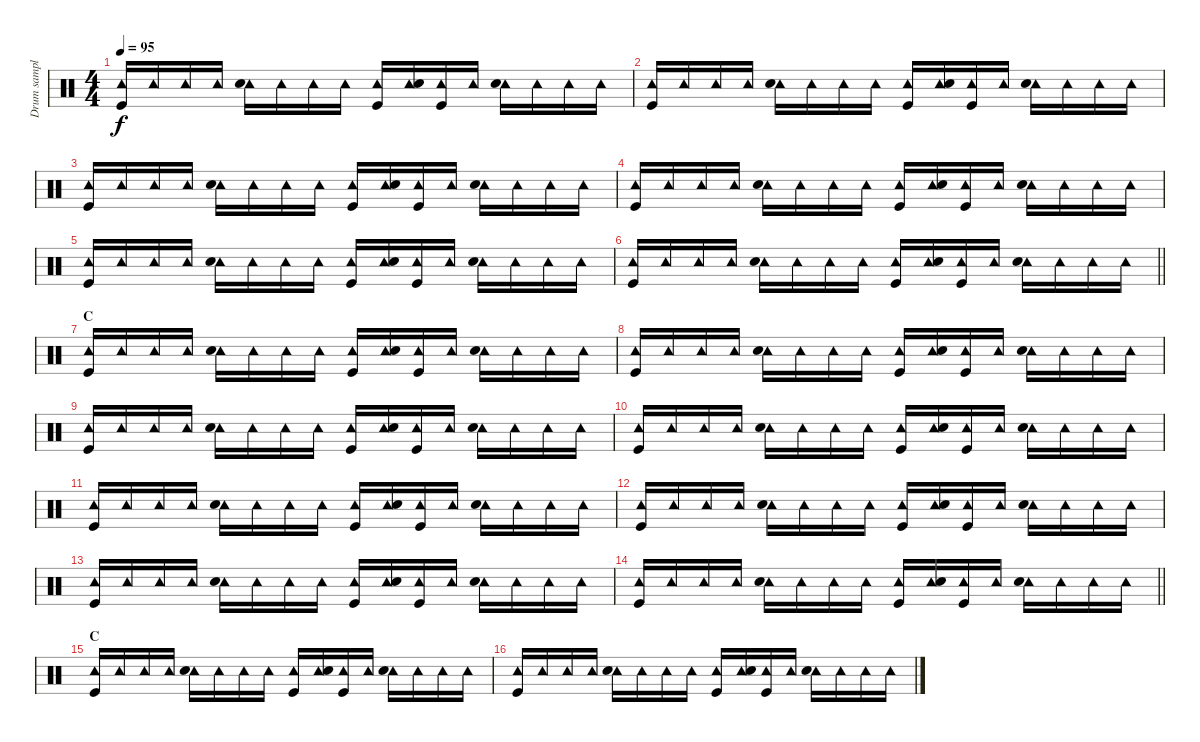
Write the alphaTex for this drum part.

\track ("Drum sample" "Drum sampl") {instrument percussion}
\staff {score}
\articulation defaults
\ts (4 4)
\tempo 95
\clef neutral
\ks c
("Tambourine (hit)" "Kick (hit)").16{dy f} "Tambourine (hit)".16 "Tambourine (hit)".16 "Tambourine (hit)".16 ("Tambourine (hit)" "Electric Snare (hit)").16 "Tambourine (hit)".16 "Tambourine (hit)".16 "Tambourine (hit)".16 ("Tambourine (hit)" "Kick (hit)").16 ("Tambourine (hit)" "Electric Snare (hit)").16 ("Tambourine (hit)" "Kick (hit)").16 "Tambourine (hit)".16 ("Tambourine (hit)" "Electric Snare (hit)").16 "Tambourine (hit)".16 "Tambourine (hit)".16 "Tambourine (hit)".16 |
("Tambourine (hit)" "Kick (hit)").16 "Tambourine (hit)".16 "Tambourine (hit)".16 "Tambourine (hit)".16 ("Tambourine (hit)" "Electric Snare (hit)").16 "Tambourine (hit)".16 "Tambourine (hit)".16 "Tambourine (hit)".16 ("Tambourine (hit)" "Kick (hit)").16 ("Tambourine (hit)" "Electric Snare (hit)").16 ("Tambourine (hit)" "Kick (hit)").16 "Tambourine (hit)".16 ("Tambourine (hit)" "Electric Snare (hit)").16 "Tambourine (hit)".16 "Tambourine (hit)".16 "Tambourine (hit)".16 |
("Tambourine (hit)" "Kick (hit)").16 "Tambourine (hit)".16 "Tambourine (hit)".16 "Tambourine (hit)".16 ("Tambourine (hit)" "Electric Snare (hit)").16 "Tambourine (hit)".16 "Tambourine (hit)".16 "Tambourine (hit)".16 ("Tambourine (hit)" "Kick (hit)").16 ("Tambourine (hit)" "Electric Snare (hit)").16 ("Tambourine (hit)" "Kick (hit)").16 "Tambourine (hit)".16 ("Tambourine (hit)" "Electric Snare (hit)").16 "Tambourine (hit)".16 "Tambourine (hit)".16 "Tambourine (hit)".16 |
("Tambourine (hit)" "Kick (hit)").16 "Tambourine (hit)".16 "Tambourine (hit)".16 "Tambourine (hit)".16 ("Tambourine (hit)" "Electric Snare (hit)").16 "Tambourine (hit)".16 "Tambourine (hit)".16 "Tambourine (hit)".16 ("Tambourine (hit)" "Kick (hit)").16 ("Tambourine (hit)" "Electric Snare (hit)").16 ("Tambourine (hit)" "Kick (hit)").16 "Tambourine (hit)".16 ("Tambourine (hit)" "Electric Snare (hit)").16 "Tambourine (hit)".16 "Tambourine (hit)".16 "Tambourine (hit)".16 |
("Tambourine (hit)" "Kick (hit)").16 "Tambourine (hit)".16 "Tambourine (hit)".16 "Tambourine (hit)".16 ("Tambourine (hit)" "Electric Snare (hit)").16 "Tambourine (hit)".16 "Tambourine (hit)".16 "Tambourine (hit)".16 ("Tambourine (hit)" "Kick (hit)").16 ("Tambourine (hit)" "Electric Snare (hit)").16 ("Tambourine (hit)" "Kick (hit)").16 "Tambourine (hit)".16 ("Tambourine (hit)" "Electric Snare (hit)").16 "Tambourine (hit)".16 "Tambourine (hit)".16 "Tambourine (hit)".16 |
\barLineRight lightlight
("Tambourine (hit)" "Kick (hit)").16 "Tambourine (hit)".16 "Tambourine (hit)".16 "Tambourine (hit)".16 ("Tambourine (hit)" "Electric Snare (hit)").16 "Tambourine (hit)".16 "Tambourine (hit)".16 "Tambourine (hit)".16 ("Tambourine (hit)" "Kick (hit)").16 ("Tambourine (hit)" "Electric Snare (hit)").16 ("Tambourine (hit)" "Kick (hit)").16 "Tambourine (hit)".16 ("Tambourine (hit)" "Electric Snare (hit)").16 "Tambourine (hit)".16 "Tambourine (hit)".16 "Tambourine (hit)".16 |
\section ("" "C")
("Tambourine (hit)" "Kick (hit)").16 "Tambourine (hit)".16 "Tambourine (hit)".16 "Tambourine (hit)".16 ("Tambourine (hit)" "Electric Snare (hit)").16 "Tambourine (hit)".16 "Tambourine (hit)".16 "Tambourine (hit)".16 ("Tambourine (hit)" "Kick (hit)").16 ("Tambourine (hit)" "Electric Snare (hit)").16 ("Tambourine (hit)" "Kick (hit)").16 "Tambourine (hit)".16 ("Tambourine (hit)" "Electric Snare (hit)").16 "Tambourine (hit)".16 "Tambourine (hit)".16 "Tambourine (hit)".16 |
("Tambourine (hit)" "Kick (hit)").16 "Tambourine (hit)".16 "Tambourine (hit)".16 "Tambourine (hit)".16 ("Tambourine (hit)" "Electric Snare (hit)").16 "Tambourine (hit)".16 "Tambourine (hit)".16 "Tambourine (hit)".16 ("Tambourine (hit)" "Kick (hit)").16 ("Tambourine (hit)" "Electric Snare (hit)").16 ("Tambourine (hit)" "Kick (hit)").16 "Tambourine (hit)".16 ("Tambourine (hit)" "Electric Snare (hit)").16 "Tambourine (hit)".16 "Tambourine (hit)".16 "Tambourine (hit)".16 |
("Tambourine (hit)" "Kick (hit)").16 "Tambourine (hit)".16 "Tambourine (hit)".16 "Tambourine (hit)".16 ("Tambourine (hit)" "Electric Snare (hit)").16 "Tambourine (hit)".16 "Tambourine (hit)".16 "Tambourine (hit)".16 ("Tambourine (hit)" "Kick (hit)").16 ("Tambourine (hit)" "Electric Snare (hit)").16 ("Tambourine (hit)" "Kick (hit)").16 "Tambourine (hit)".16 ("Tambourine (hit)" "Electric Snare (hit)").16 "Tambourine (hit)".16 "Tambourine (hit)".16 "Tambourine (hit)".16 |
("Tambourine (hit)" "Kick (hit)").16 "Tambourine (hit)".16 "Tambourine (hit)".16 "Tambourine (hit)".16 ("Tambourine (hit)" "Electric Snare (hit)").16 "Tambourine (hit)".16 "Tambourine (hit)".16 "Tambourine (hit)".16 ("Tambourine (hit)" "Kick (hit)").16 ("Tambourine (hit)" "Electric Snare (hit)").16 ("Tambourine (hit)" "Kick (hit)").16 "Tambourine (hit)".16 ("Tambourine (hit)" "Electric Snare (hit)").16 "Tambourine (hit)".16 "Tambourine (hit)".16 "Tambourine (hit)".16 |
("Tambourine (hit)" "Kick (hit)").16 "Tambourine (hit)".16 "Tambourine (hit)".16 "Tambourine (hit)".16 ("Tambourine (hit)" "Electric Snare (hit)").16 "Tambourine (hit)".16 "Tambourine (hit)".16 "Tambourine (hit)".16 ("Tambourine (hit)" "Kick (hit)").16 ("Tambourine (hit)" "Electric Snare (hit)").16 ("Tambourine (hit)" "Kick (hit)").16 "Tambourine (hit)".16 ("Tambourine (hit)" "Electric Snare (hit)").16 "Tambourine (hit)".16 "Tambourine (hit)".16 "Tambourine (hit)".16 |
("Tambourine (hit)" "Kick (hit)").16 "Tambourine (hit)".16 "Tambourine (hit)".16 "Tambourine (hit)".16 ("Tambourine (hit)" "Electric Snare (hit)").16 "Tambourine (hit)".16 "Tambourine (hit)".16 "Tambourine (hit)".16 ("Tambourine (hit)" "Kick (hit)").16 ("Tambourine (hit)" "Electric Snare (hit)").16 ("Tambourine (hit)" "Kick (hit)").16 "Tambourine (hit)".16 ("Tambourine (hit)" "Electric Snare (hit)").16 "Tambourine (hit)".16 "Tambourine (hit)".16 "Tambourine (hit)".16 |
("Tambourine (hit)" "Kick (hit)").16 "Tambourine (hit)".16 "Tambourine (hit)".16 "Tambourine (hit)".16 ("Tambourine (hit)" "Electric Snare (hit)").16 "Tambourine (hit)".16 "Tambourine (hit)".16 "Tambourine (hit)".16 ("Tambourine (hit)" "Kick (hit)").16 ("Tambourine (hit)" "Electric Snare (hit)").16 ("Tambourine (hit)" "Kick (hit)").16 "Tambourine (hit)".16 ("Tambourine (hit)" "Electric Snare (hit)").16 "Tambourine (hit)".16 "Tambourine (hit)".16 "Tambourine (hit)".16 |
\barLineRight lightlight
("Tambourine (hit)" "Kick (hit)").16 "Tambourine (hit)".16 "Tambourine (hit)".16 "Tambourine (hit)".16 ("Tambourine (hit)" "Electric Snare (hit)").16 "Tambourine (hit)".16 "Tambourine (hit)".16 "Tambourine (hit)".16 ("Tambourine (hit)" "Kick (hit)").16 ("Tambourine (hit)" "Electric Snare (hit)").16 ("Tambourine (hit)" "Kick (hit)").16 "Tambourine (hit)".16 ("Tambourine (hit)" "Electric Snare (hit)").16 "Tambourine (hit)".16 "Tambourine (hit)".16 "Tambourine (hit)".16 |
\section ("" "C")
("Tambourine (hit)" "Kick (hit)").16 "Tambourine (hit)".16 "Tambourine (hit)".16 "Tambourine (hit)".16 ("Tambourine (hit)" "Electric Snare (hit)").16 "Tambourine (hit)".16 "Tambourine (hit)".16 "Tambourine (hit)".16 ("Tambourine (hit)" "Kick (hit)").16 ("Tambourine (hit)" "Electric Snare (hit)").16 ("Tambourine (hit)" "Kick (hit)").16 "Tambourine (hit)".16 ("Tambourine (hit)" "Electric Snare (hit)").16 "Tambourine (hit)".16 "Tambourine (hit)".16 "Tambourine (hit)".16 |
("Tambourine (hit)" "Kick (hit)").16 "Tambourine (hit)".16 "Tambourine (hit)".16 "Tambourine (hit)".16 ("Tambourine (hit)" "Electric Snare (hit)").16 "Tambourine (hit)".16 "Tambourine (hit)".16 "Tambourine (hit)".16 ("Tambourine (hit)" "Kick (hit)").16 ("Tambourine (hit)" "Electric Snare (hit)").16 ("Tambourine (hit)" "Kick (hit)").16 "Tambourine (hit)".16 ("Tambourine (hit)" "Electric Snare (hit)").16 "Tambourine (hit)".16 "Tambourine (hit)".16 "Tambourine (hit)".16
